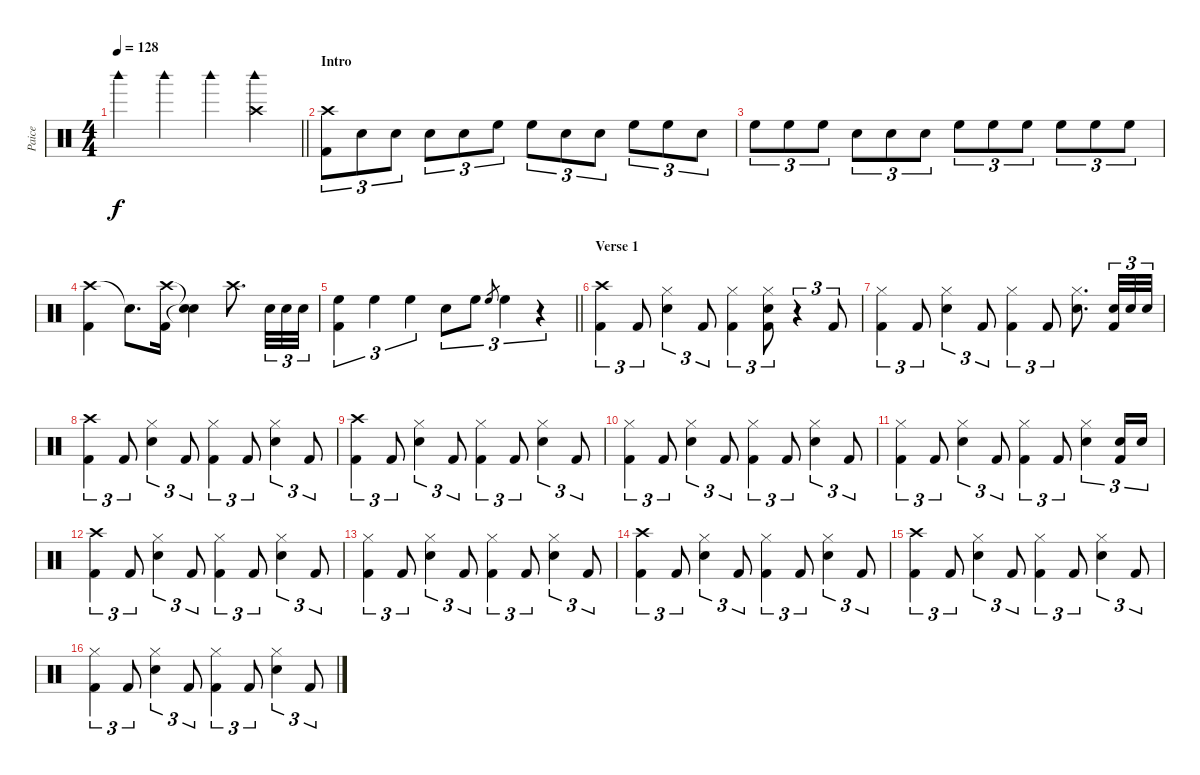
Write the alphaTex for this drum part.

\track ("Paice" "Paice") {instrument percussion}
\staff {score}
\articulation defaults
\ts (4 4)
\tempo 128
\clef neutral
\barLineRight lightlight
\ks c "Woodblock high (hit)".4{dy f} "Woodblock high (hit)".4 "Woodblock high (hit)".4
("Crash high (hit)" "Woodblock high (hit)").4 |
\section ("" "Intro")
("Crash high (hit)" "Kick (hit) 2").8{tu (3 2)} "Snare (hit) 2".8{tu (3 2)} "Snare (hit) 2".8{tu (3 2)} "Snare (hit) 2".8{tu (3 2)} "Snare (hit) 2".8{tu (3 2)} "High Floor Tom (hit)".8{tu (3 2)} "High Floor Tom (hit)".8{tu (3 2)} "Snare (hit) 2".8{tu (3 2)} "Snare (hit) 2".8{tu (3 2)} "High Floor Tom (hit)".8{tu (3 2)} "High Floor Tom (hit)".8{tu (3 2)} "Snare (hit) 2".8{tu (3 2)} |
"High Floor Tom (hit)".8{tu (3 2)} "High Floor Tom (hit)".8{tu (3 2)} "High Floor Tom (hit)".8{tu (3 2)} "Snare (hit) 2".8{tu (3 2)} "Snare (hit) 2".8{tu (3 2)} "Snare (hit) 2".8{tu (3 2)} "High Floor Tom (hit)".8{tu (3 2)} "High Floor Tom (hit)".8{tu (3 2)} "High Floor Tom (hit)".8{tu (3 2)} "High Floor Tom (hit)".8{tu (3 2)} "High Floor Tom (hit)".8{tu (3 2)} "High Floor Tom (hit)".8{tu (3 2)} |
("Crash high (hit)" "Kick (hit) 2").4 "Snare (hit)"{t}.8{d} ("Crash high (hit)" "Kick (hit) 2").16 ("Snare (hit)"{t} "Snare (hit)"{t}).4 "Crash high (hit)".8{d} "Snare (hit) 2".32{tu (3 2)} "Snare (hit) 2".32{tu (3 2)} "Snare (hit) 2".32{tu (3 2)} |
\barLineRight lightlight
("High Floor Tom (hit)" "Kick (hit) 2").4{tu (3 2)} "High Floor Tom (hit)".4{tu (3 2)} "High Floor Tom (hit)".4{tu (3 2)} "Snare (hit) 2".8{tu (3 2)} "High Floor Tom (hit)".8{tu (3 2)} "High Floor Tom (hit)".8{gr} "High Floor Tom (hit)".4{tu (3 2)} r.4{tu (3 2)} |
\section ("" "Verse 1")
("Crash high (hit)" "Kick (hit) 2").4{tu (3 2)} "Kick (hit) 2".8{tu (3 2)} ("Hi-Hat (closed)" "Snare (hit) 2").4{tu (3 2)} "Kick (hit) 2".8{tu (3 2)} ("Hi-Hat (closed)" "Kick (hit) 2").4{tu (3 2)} ("Hi-Hat (closed)" "Snare (hit) 2" "Kick (hit) 2").8{tu (3 2)} r.4{tu (3 2)} "Kick (hit) 2".8{tu (3 2)} |
("Hi-Hat (closed)" "Kick (hit) 2").4{tu (3 2)} "Kick (hit) 2".8{tu (3 2)} ("Hi-Hat (closed)" "Snare (hit) 2").4{tu (3 2)} "Kick (hit) 2".8{tu (3 2)} ("Hi-Hat (closed)" "Kick (hit) 2").4{tu (3 2)} "Kick (hit) 2".8{tu (3 2)} ("Hi-Hat (closed)" "Snare (hit) 2").8{d} ("Snare (hit) 2" "Kick (hit) 2").32{tu (3 2)} "Snare (hit) 2".32{tu (3 2)} "Snare (hit) 2".32{tu (3 2)} |
("Crash high (hit)" "Kick (hit) 2").4{tu (3 2)} "Kick (hit) 2".8{tu (3 2)} ("Hi-Hat (closed)" "Snare (hit) 2").4{tu (3 2)} "Kick (hit) 2".8{tu (3 2)} ("Hi-Hat (closed)" "Kick (hit) 2").4{tu (3 2)} "Kick (hit) 2".8{tu (3 2)} ("Hi-Hat (closed)" "Snare (hit) 2").4{tu (3 2)} "Kick (hit) 2".8{tu (3 2)} |
("Crash high (hit)" "Kick (hit) 2").4{tu (3 2)} "Kick (hit) 2".8{tu (3 2)} ("Hi-Hat (closed)" "Snare (hit) 2").4{tu (3 2)} "Kick (hit) 2".8{tu (3 2)} ("Hi-Hat (closed)" "Kick (hit) 2").4{tu (3 2)} "Kick (hit) 2".8{tu (3 2)} ("Hi-Hat (closed)" "Snare (hit) 2").4{tu (3 2)} "Kick (hit) 2".8{tu (3 2)} |
("Hi-Hat (closed)" "Kick (hit) 2").4{tu (3 2)} "Kick (hit) 2".8{tu (3 2)} ("Hi-Hat (closed)" "Snare (hit) 2").4{tu (3 2)} "Kick (hit) 2".8{tu (3 2)} ("Hi-Hat (closed)" "Kick (hit) 2").4{tu (3 2)} "Kick (hit) 2".8{tu (3 2)} ("Hi-Hat (closed)" "Snare (hit) 2").4{tu (3 2)} "Kick (hit) 2".8{tu (3 2)} |
("Hi-Hat (closed)" "Kick (hit) 2").4{tu (3 2)} "Kick (hit) 2".8{tu (3 2)} ("Hi-Hat (closed)" "Snare (hit) 2").4{tu (3 2)} "Kick (hit) 2".8{tu (3 2)} ("Hi-Hat (closed)" "Kick (hit) 2").4{tu (3 2)} "Kick (hit) 2".8{tu (3 2)} ("Hi-Hat (closed)" "Snare (hit) 2").4{tu (3 2)} ("Snare (hit) 2" "Kick (hit) 2").16{tu (3 2)} "Snare (hit) 2".16{tu (3 2)} |
("Crash high (hit)" "Kick (hit) 2").4{tu (3 2)} "Kick (hit) 2".8{tu (3 2)} ("Hi-Hat (closed)" "Snare (hit) 2").4{tu (3 2)} "Kick (hit) 2".8{tu (3 2)} ("Hi-Hat (closed)" "Kick (hit) 2").4{tu (3 2)} "Kick (hit) 2".8{tu (3 2)} ("Hi-Hat (closed)" "Snare (hit) 2").4{tu (3 2)} "Kick (hit) 2".8{tu (3 2)} |
("Hi-Hat (closed)" "Kick (hit) 2").4{tu (3 2)} "Kick (hit) 2".8{tu (3 2)} ("Hi-Hat (closed)" "Snare (hit) 2").4{tu (3 2)} "Kick (hit) 2".8{tu (3 2)} ("Hi-Hat (closed)" "Kick (hit) 2").4{tu (3 2)} "Kick (hit) 2".8{tu (3 2)} ("Hi-Hat (closed)" "Snare (hit) 2").4{tu (3 2)} "Kick (hit) 2".8{tu (3 2)} |
("Crash high (hit)" "Kick (hit) 2").4{tu (3 2)} "Kick (hit) 2".8{tu (3 2)} ("Hi-Hat (closed)" "Snare (hit) 2").4{tu (3 2)} "Kick (hit) 2".8{tu (3 2)} ("Hi-Hat (closed)" "Kick (hit) 2").4{tu (3 2)} "Kick (hit) 2".8{tu (3 2)} ("Hi-Hat (closed)" "Snare (hit) 2").4{tu (3 2)} "Kick (hit) 2".8{tu (3 2)} |
("Crash high (hit)" "Kick (hit) 2").4{tu (3 2)} "Kick (hit) 2".8{tu (3 2)} ("Hi-Hat (closed)" "Snare (hit) 2").4{tu (3 2)} "Kick (hit) 2".8{tu (3 2)} ("Hi-Hat (closed)" "Kick (hit) 2").4{tu (3 2)} "Kick (hit) 2".8{tu (3 2)} ("Hi-Hat (closed)" "Snare (hit) 2").4{tu (3 2)} "Kick (hit) 2".8{tu (3 2)} |
("Hi-Hat (closed)" "Kick (hit) 2").4{tu (3 2)} "Kick (hit) 2".8{tu (3 2)} ("Hi-Hat (closed)" "Snare (hit) 2").4{tu (3 2)} "Kick (hit) 2".8{tu (3 2)} ("Hi-Hat (closed)" "Kick (hit) 2").4{tu (3 2)} "Kick (hit) 2".8{tu (3 2)} ("Hi-Hat (closed)" "Snare (hit) 2").4{tu (3 2)} "Kick (hit) 2".8{tu (3 2)}
